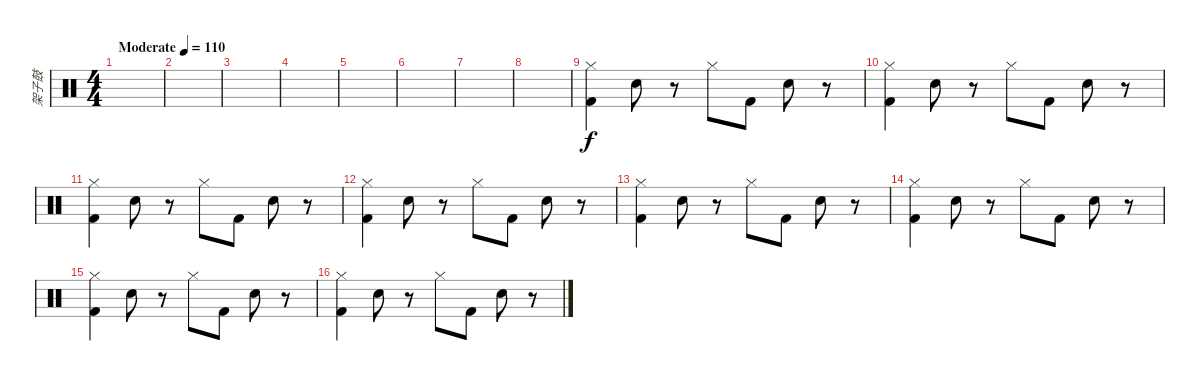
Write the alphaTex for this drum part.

\track ("架子鼓" "架子鼓") {instrument percussion}
\staff {score}
\articulation defaults
\ts (4 4)
\tempo (110 "Moderate")
\clef neutral
\ks c
|
|
|
|
|
|
|
|
("Hi-Hat (closed)" "Kick (hit) 2").4 "Snare (hit) 2".8 r.8 "Hi-Hat (closed)".8 "Kick (hit) 2".8 "Snare (hit) 2".8 r.8 |
("Hi-Hat (closed)" "Kick (hit) 2").4 "Snare (hit) 2".8 r.8 "Hi-Hat (closed)".8 "Kick (hit) 2".8 "Snare (hit) 2".8 r.8 |
("Hi-Hat (closed)" "Kick (hit) 2").4 "Snare (hit) 2".8 r.8 "Hi-Hat (closed)".8 "Kick (hit) 2".8 "Snare (hit) 2".8 r.8 |
("Hi-Hat (closed)" "Kick (hit) 2").4 "Snare (hit) 2".8 r.8 "Hi-Hat (closed)".8 "Kick (hit) 2".8 "Snare (hit) 2".8 r.8 |
("Hi-Hat (closed)" "Kick (hit) 2").4 "Snare (hit) 2".8 r.8 "Hi-Hat (closed)".8 "Kick (hit) 2".8 "Snare (hit) 2".8 r.8 |
("Hi-Hat (closed)" "Kick (hit) 2").4 "Snare (hit) 2".8 r.8 "Hi-Hat (closed)".8 "Kick (hit) 2".8 "Snare (hit) 2".8 r.8 |
("Hi-Hat (closed)" "Kick (hit) 2").4 "Snare (hit) 2".8 r.8 "Hi-Hat (closed)".8 "Kick (hit) 2".8 "Snare (hit) 2".8 r.8 |
("Hi-Hat (closed)" "Kick (hit) 2").4 "Snare (hit) 2".8 r.8 "Hi-Hat (closed)".8 "Kick (hit) 2".8 "Snare (hit) 2".8 r.8
